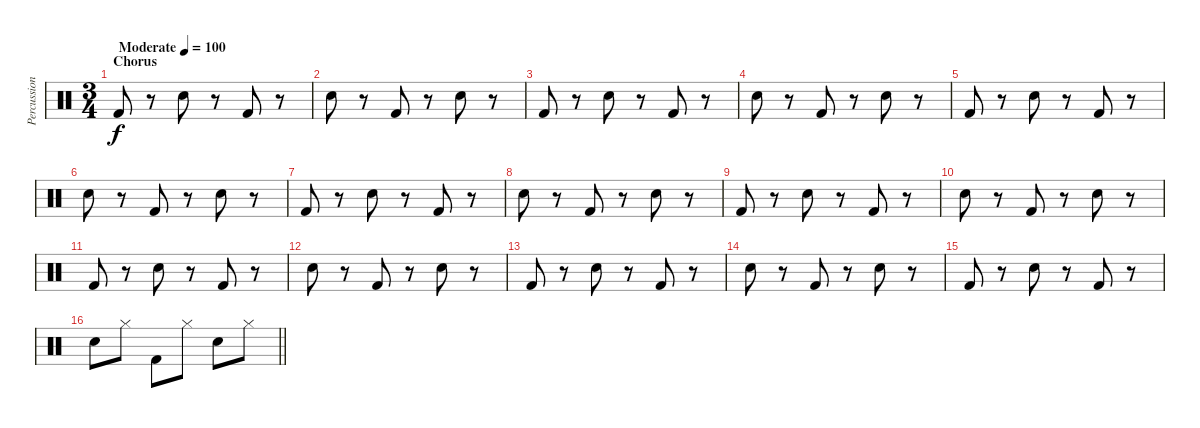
\track ("Percussion" "Percussion") {instrument percussion}
\staff {score}
\articulation defaults
\ts (3 4)
\section ("" "Chorus")
\tempo (100 "Moderate")
\clef neutral
\ks c "Kick (hit) 2".8{dy f}
r.8 "Snare (hit) 2".8 r.8 "Kick (hit) 2".8 r.8 |
"Snare (hit) 2".8 r.8 "Kick (hit) 2".8 r.8 "Snare (hit) 2".8 r.8 |
"Kick (hit) 2".8 r.8 "Snare (hit) 2".8 r.8 "Kick (hit) 2".8 r.8 |
"Snare (hit) 2".8 r.8 "Kick (hit) 2".8 r.8 "Snare (hit) 2".8 r.8 |
"Kick (hit) 2".8 r.8 "Snare (hit) 2".8 r.8 "Kick (hit) 2".8 r.8 |
"Snare (hit) 2".8 r.8 "Kick (hit) 2".8 r.8 "Snare (hit) 2".8 r.8 |
"Kick (hit) 2".8 r.8 "Snare (hit) 2".8 r.8 "Kick (hit) 2".8 r.8 |
"Snare (hit) 2".8 r.8 "Kick (hit) 2".8 r.8 "Snare (hit) 2".8 r.8 |
"Kick (hit) 2".8 r.8 "Snare (hit) 2".8 r.8 "Kick (hit) 2".8 r.8 |
"Snare (hit) 2".8 r.8 "Kick (hit) 2".8 r.8 "Snare (hit) 2".8 r.8 |
"Kick (hit) 2".8 r.8 "Snare (hit) 2".8 r.8 "Kick (hit) 2".8 r.8 |
"Snare (hit) 2".8 r.8 "Kick (hit) 2".8 r.8 "Snare (hit) 2".8 r.8 |
"Kick (hit) 2".8 r.8 "Snare (hit) 2".8 r.8 "Kick (hit) 2".8 r.8 |
"Snare (hit) 2".8 r.8 "Kick (hit) 2".8 r.8 "Snare (hit) 2".8 r.8 |
"Kick (hit) 2".8 r.8 "Snare (hit) 2".8 r.8 "Kick (hit) 2".8 r.8 |
\barLineRight lightlight "Snare (hit) 2".8 "Hi-Hat (closed)".8 "Kick (hit) 2".8 "Hi-Hat (closed)".8 "Snare (hit) 2".8 "Hi-Hat (closed)".8
